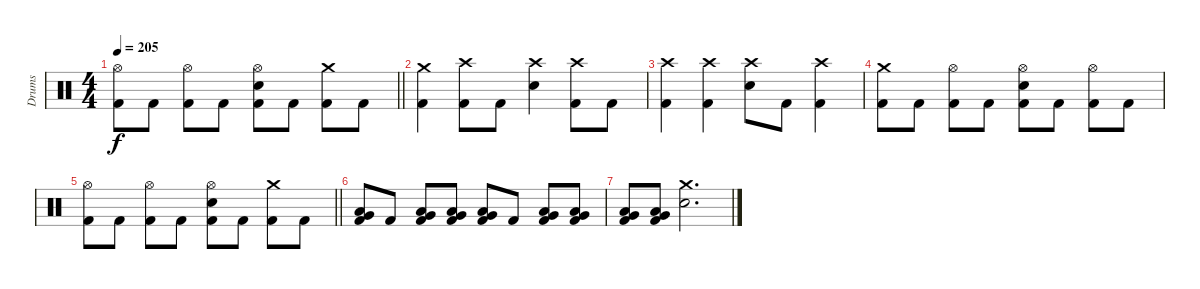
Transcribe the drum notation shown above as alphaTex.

\track ("Drums" "Drums") {instrument percussion}
\staff {score}
\articulation defaults
\ts (4 4)
\tempo 205
\clef neutral
\barLineRight lightlight
\ks c
("Hi-Hat (open)" "Kick (hit) 2").8{dy f} "Kick (hit) 2".8 ("Hi-Hat (open)" "Kick (hit) 2").8 "Kick (hit) 2".8 ("Hi-Hat (open)" "Electric Snare (hit)" "Kick (hit) 2").8 "Kick (hit) 2".8 ("Crash medium (hit)" "Kick (hit) 2").8 "Kick (hit) 2".8 |
("Crash medium (hit)" "Kick (hit) 2").4 ("Crash high (hit)" "Kick (hit) 2").8 "Kick (hit) 2".8 ("Crash high (hit)" "Electric Snare (hit)").4 ("Crash high (hit)" "Kick (hit) 2").8 "Kick (hit) 2".8 |
("Crash high (hit)" "Kick (hit) 2").4 ("Crash high (hit)" "Kick (hit) 2").4 ("Crash high (hit)" "Electric Snare (hit)").8 "Kick (hit) 2".8 ("Crash high (hit)" "Kick (hit) 2").4 |
("Crash medium (hit)" "Kick (hit) 2").8 "Kick (hit) 2".8 ("Hi-Hat (open)" "Kick (hit) 2").8 "Kick (hit) 2".8 ("Hi-Hat (open)" "Electric Snare (hit)" "Kick (hit) 2").8 "Kick (hit) 2".8 ("Hi-Hat (open)" "Kick (hit) 2").8 "Kick (hit) 2".8 |
\barLineRight lightlight
("Hi-Hat (open)" "Kick (hit) 2").8 "Kick (hit) 2".8 ("Hi-Hat (open)" "Kick (hit) 2").8 "Kick (hit) 2".8 ("Hi-Hat (open)" "Electric Snare (hit)" "Kick (hit) 2").8 "Kick (hit) 2".8 ("Crash medium (hit)" "Kick (hit) 2").8 "Kick (hit) 2".8 |
("Low Tom (hit)" "Very Low Tom (hit)" "Kick (hit) 2").8 "Kick (hit) 2".8 ("Low Tom (hit)" "Very Low Tom (hit)" "Kick (hit) 2").8 ("Low Tom (hit)" "Very Low Tom (hit)" "Kick (hit) 2").8 ("Low Tom (hit)" "Very Low Tom (hit)" "Kick (hit) 2").8 "Kick (hit) 2".8 ("Low Tom (hit)" "Very Low Tom (hit)" "Kick (hit) 2").8 ("Low Tom (hit)" "Very Low Tom (hit)" "Kick (hit) 2").8 |
("Low Tom (hit)" "Very Low Tom (hit)" "Kick (hit) 2").8 ("Low Tom (hit)" "Very Low Tom (hit)" "Kick (hit) 2").8 ("Crash medium (hit)" "Electric Snare (hit)").2{d}
